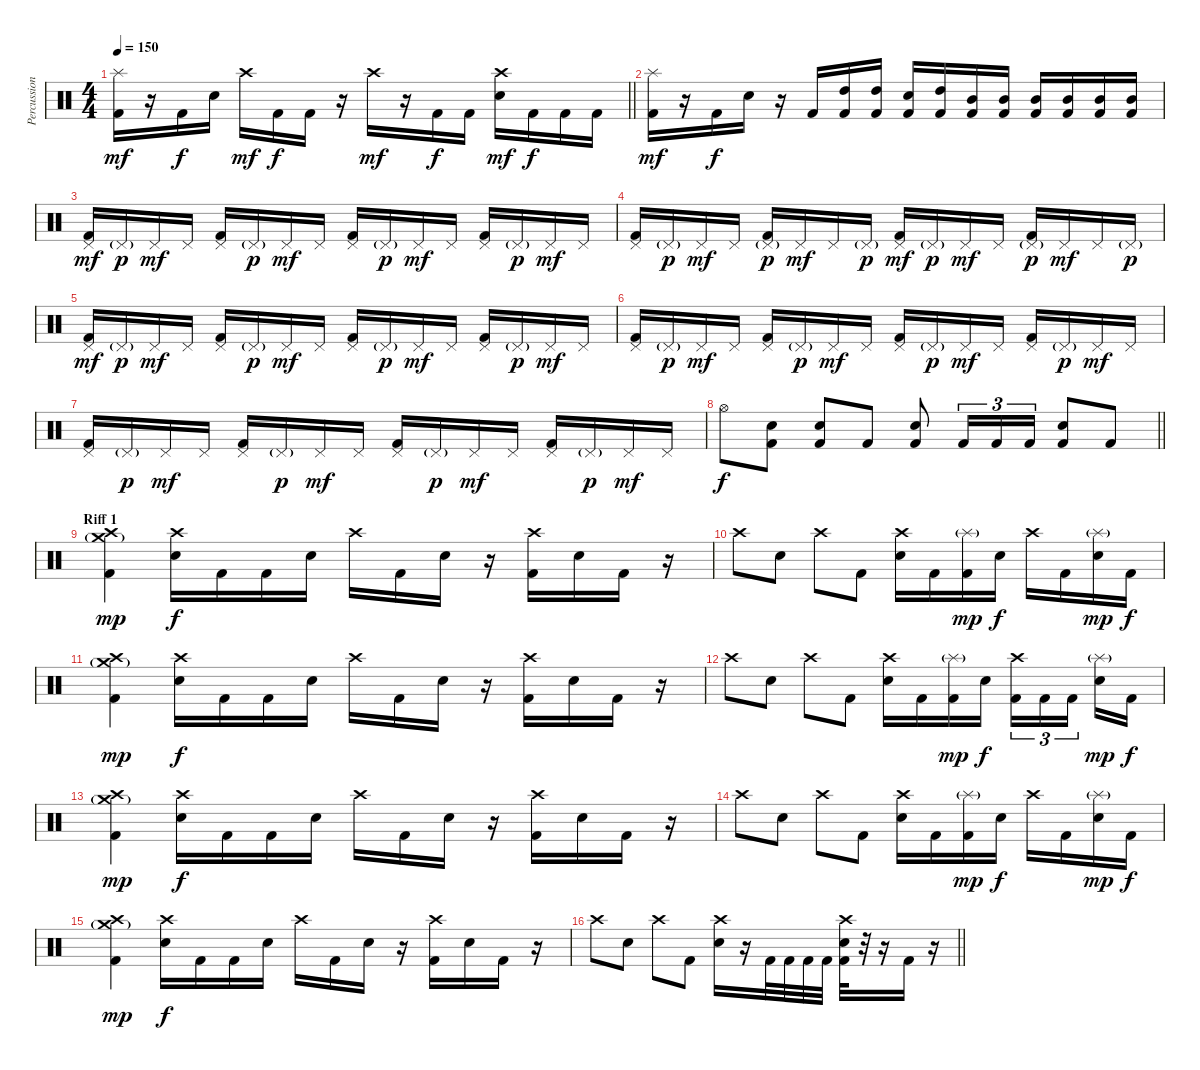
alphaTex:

\track ("Percussion" "Percussion") {instrument percussion}
\staff {score}
\articulation defaults
\ts (4 4)
\tempo 150
\clef neutral
\barLineRight lightlight
\ks c
("Splash (hit)" "Kick (hit) 2").16{dy mf} r.16 "Kick (hit) 2".16{dy f} "Snare (hit) 2".16 "Crash high (hit)".16{dy mf} "Kick (hit) 2".16{dy f} "Kick (hit) 2".16 r.16 "Crash high (hit)".16{dy mf} r.16 "Kick (hit) 2".16{dy f} "Kick (hit) 2".16 ("Crash high (hit)" "Snare (hit) 2").16{dy mf} "Kick (hit) 2".16{dy f} "Kick (hit) 2".16 "Kick (hit) 2".16 |
("Splash (hit)" "Kick (hit) 2").16{dy mf} r.16 "Kick (hit) 2".16{dy f} "Snare (hit) 2".16 r.16 "Kick (hit) 2".16 ("High Tom (hit)" "Kick (hit) 2").16 ("High Tom (hit)" "Kick (hit) 2").16 ("Snare (hit) 2" "Kick (hit) 2").16 ("High Tom (hit)" "Kick (hit) 2").16 ("Mid Tom (hit)" "Kick (hit) 2").16 ("Mid Tom (hit)" "Kick (hit) 2").16 ("Mid Tom (hit)" "Kick (hit) 2").16 ("Mid Tom (hit)" "Kick (hit) 2").16 ("Mid Tom (hit)" "Kick (hit) 2").16 ("Mid Tom (hit)" "Kick (hit) 2").16 |
("Pedal Hi-Hat (hit)" "Kick (hit) 2").16{dy mf} "Pedal Hi-Hat (hit)"{g}.16{dy p} "Pedal Hi-Hat (hit)".16{dy mf} "Pedal Hi-Hat (hit)".16 ("Pedal Hi-Hat (hit)" "Kick (hit) 2").16 "Pedal Hi-Hat (hit)"{g}.16{dy p} "Pedal Hi-Hat (hit)".16{dy mf} "Pedal Hi-Hat (hit)".16 ("Pedal Hi-Hat (hit)" "Kick (hit) 2").16 "Pedal Hi-Hat (hit)"{g}.16{dy p} "Pedal Hi-Hat (hit)".16{dy mf} "Pedal Hi-Hat (hit)".16 ("Pedal Hi-Hat (hit)" "Kick (hit) 2").16 "Pedal Hi-Hat (hit)"{g}.16{dy p} "Pedal Hi-Hat (hit)".16{dy mf} "Pedal Hi-Hat (hit)".16 |
("Pedal Hi-Hat (hit)" "Kick (hit) 2").16 "Pedal Hi-Hat (hit)"{g}.16{dy p} "Pedal Hi-Hat (hit)".16{dy mf} "Pedal Hi-Hat (hit)".16 ("Pedal Hi-Hat (hit)"{g} "Kick (hit) 2").16{dy p} "Pedal Hi-Hat (hit)".16{dy mf} "Pedal Hi-Hat (hit)".16 "Pedal Hi-Hat (hit)"{g}.16{dy p} ("Pedal Hi-Hat (hit)" "Kick (hit) 2").16{dy mf} "Pedal Hi-Hat (hit)"{g}.16{dy p} "Pedal Hi-Hat (hit)".16{dy mf} "Pedal Hi-Hat (hit)".16 ("Pedal Hi-Hat (hit)"{g} "Kick (hit) 2").16{dy p} "Pedal Hi-Hat (hit)".16{dy mf} "Pedal Hi-Hat (hit)".16 "Pedal Hi-Hat (hit)"{g}.16{dy p} |
("Pedal Hi-Hat (hit)" "Kick (hit) 2").16{dy mf} "Pedal Hi-Hat (hit)"{g}.16{dy p} "Pedal Hi-Hat (hit)".16{dy mf} "Pedal Hi-Hat (hit)".16 ("Pedal Hi-Hat (hit)" "Kick (hit) 2").16 "Pedal Hi-Hat (hit)"{g}.16{dy p} "Pedal Hi-Hat (hit)".16{dy mf} "Pedal Hi-Hat (hit)".16 ("Pedal Hi-Hat (hit)" "Kick (hit) 2").16 "Pedal Hi-Hat (hit)"{g}.16{dy p} "Pedal Hi-Hat (hit)".16{dy mf} "Pedal Hi-Hat (hit)".16 ("Pedal Hi-Hat (hit)" "Kick (hit) 2").16 "Pedal Hi-Hat (hit)"{g}.16{dy p} "Pedal Hi-Hat (hit)".16{dy mf} "Pedal Hi-Hat (hit)".16 |
("Pedal Hi-Hat (hit)" "Kick (hit) 2").16 "Pedal Hi-Hat (hit)"{g}.16{dy p} "Pedal Hi-Hat (hit)".16{dy mf} "Pedal Hi-Hat (hit)".16 ("Pedal Hi-Hat (hit)" "Kick (hit) 2").16 "Pedal Hi-Hat (hit)"{g}.16{dy p} "Pedal Hi-Hat (hit)".16{dy mf} "Pedal Hi-Hat (hit)".16 ("Pedal Hi-Hat (hit)" "Kick (hit) 2").16 "Pedal Hi-Hat (hit)"{g}.16{dy p} "Pedal Hi-Hat (hit)".16{dy mf} "Pedal Hi-Hat (hit)".16 ("Pedal Hi-Hat (hit)" "Kick (hit) 2").16 "Pedal Hi-Hat (hit)"{g}.16{dy p} "Pedal Hi-Hat (hit)".16{dy mf} "Pedal Hi-Hat (hit)".16 |
("Pedal Hi-Hat (hit)" "Kick (hit) 2").16 "Pedal Hi-Hat (hit)"{g}.16{dy p} "Pedal Hi-Hat (hit)".16{dy mf} "Pedal Hi-Hat (hit)".16 ("Pedal Hi-Hat (hit)" "Kick (hit) 2").16 "Pedal Hi-Hat (hit)"{g}.16{dy p} "Pedal Hi-Hat (hit)".16{dy mf} "Pedal Hi-Hat (hit)".16 ("Pedal Hi-Hat (hit)" "Kick (hit) 2").16 "Pedal Hi-Hat (hit)"{g}.16{dy p} "Pedal Hi-Hat (hit)".16{dy mf} "Pedal Hi-Hat (hit)".16 ("Pedal Hi-Hat (hit)" "Kick (hit) 2").16 "Pedal Hi-Hat (hit)"{g}.16{dy p} "Pedal Hi-Hat (hit)".16{dy mf} "Pedal Hi-Hat (hit)".16 |
\barLineRight lightlight "Hi-Hat (open)".8{dy f}
("Snare (hit) 2" "Kick (hit) 2").8 ("Snare (hit) 2" "Kick (hit) 2").8 "Kick (hit) 2".8 ("Snare (hit) 2" "Kick (hit) 2").8 "Kick (hit) 2".16{tu (3 2)} "Kick (hit) 2".16{tu (3 2)} "Kick (hit) 2".16{tu (3 2)} ("Snare (hit) 2" "Kick (hit) 2").8 "Kick (hit) 2".8 |
\section ("" "Riff 1")
("Crash high (hit)" "Crash medium (hit)"{g} "Kick (hit) 2").4{dy mp} ("Crash high (hit)" "Snare (hit) 2").16{dy f} "Kick (hit) 2".16 "Kick (hit) 2".16 "Snare (hit) 2".16 "Crash high (hit)".16 "Kick (hit) 2".16 "Snare (hit) 2".16 r.16 ("Crash high (hit)" "Kick (hit) 2").16 "Snare (hit) 2".16 "Kick (hit) 2".16 r.16 |
"Crash high (hit)".8 "Snare (hit) 2".8 "Crash high (hit)".8 "Kick (hit) 2".8 ("Crash high (hit)" "Snare (hit) 2").16 "Kick (hit) 2".16 ("Splash (hit)"{g} "Kick (hit) 2").16{dy mp} "Snare (hit) 2".16{dy f} "Crash high (hit)".16 "Kick (hit) 2".16 ("Splash (hit)"{g} "Snare (hit) 2").16{dy mp} "Kick (hit) 2".16{dy f} |
("Crash high (hit)" "Crash medium (hit)"{g} "Kick (hit) 2").4{dy mp} ("Crash high (hit)" "Snare (hit) 2").16{dy f} "Kick (hit) 2".16 "Kick (hit) 2".16 "Snare (hit) 2".16 "Crash high (hit)".16 "Kick (hit) 2".16 "Snare (hit) 2".16 r.16 ("Crash high (hit)" "Kick (hit) 2").16 "Snare (hit) 2".16 "Kick (hit) 2".16 r.16 |
"Crash high (hit)".8 "Snare (hit) 2".8 "Crash high (hit)".8 "Kick (hit) 2".8 ("Crash high (hit)" "Snare (hit) 2").16 "Kick (hit) 2".16 ("Splash (hit)"{g} "Kick (hit) 2").16{dy mp} "Snare (hit) 2".16{dy f} ("Crash high (hit)" "Kick (hit) 2").16{tu (3 2)} "Kick (hit) 2".16{tu (3 2)} "Kick (hit) 2".16{tu (3 2) beam splitsecondary} ("Splash (hit)"{g} "Snare (hit) 2").16{dy mp} "Kick (hit) 2".16{dy f} |
("Crash high (hit)" "Crash medium (hit)"{g} "Kick (hit) 2").4{dy mp} ("Crash high (hit)" "Snare (hit) 2").16{dy f} "Kick (hit) 2".16 "Kick (hit) 2".16 "Snare (hit) 2".16 "Crash high (hit)".16 "Kick (hit) 2".16 "Snare (hit) 2".16 r.16 ("Crash high (hit)" "Kick (hit) 2").16 "Snare (hit) 2".16 "Kick (hit) 2".16 r.16 |
"Crash high (hit)".8 "Snare (hit) 2".8 "Crash high (hit)".8 "Kick (hit) 2".8 ("Crash high (hit)" "Snare (hit) 2").16 "Kick (hit) 2".16 ("Splash (hit)"{g} "Kick (hit) 2").16{dy mp} "Snare (hit) 2".16{dy f} "Crash high (hit)".16 "Kick (hit) 2".16 ("Splash (hit)"{g} "Snare (hit) 2").16{dy mp} "Kick (hit) 2".16{dy f} |
("Crash high (hit)" "Crash medium (hit)"{g} "Kick (hit) 2").4{dy mp} ("Crash high (hit)" "Snare (hit) 2").16{dy f} "Kick (hit) 2".16 "Kick (hit) 2".16 "Snare (hit) 2".16 "Crash high (hit)".16 "Kick (hit) 2".16 "Snare (hit) 2".16 r.16 ("Crash high (hit)" "Kick (hit) 2").16 "Snare (hit) 2".16 "Kick (hit) 2".16 r.16 |
\barLineRight lightlight "Crash high (hit)".8 "Snare (hit) 2".8 "Crash high (hit)".8 "Kick (hit) 2".8
("Crash high (hit)" "Snare (hit) 2").16 r.16 "Kick (hit) 2".32 "Kick (hit) 2".32 "Kick (hit) 2".32 "Kick (hit) 2".32 ("Crash high (hit)" "Snare (hit) 2" "Kick (hit) 2").32 r.32 r.16 "Kick (hit) 2".16 r.16
